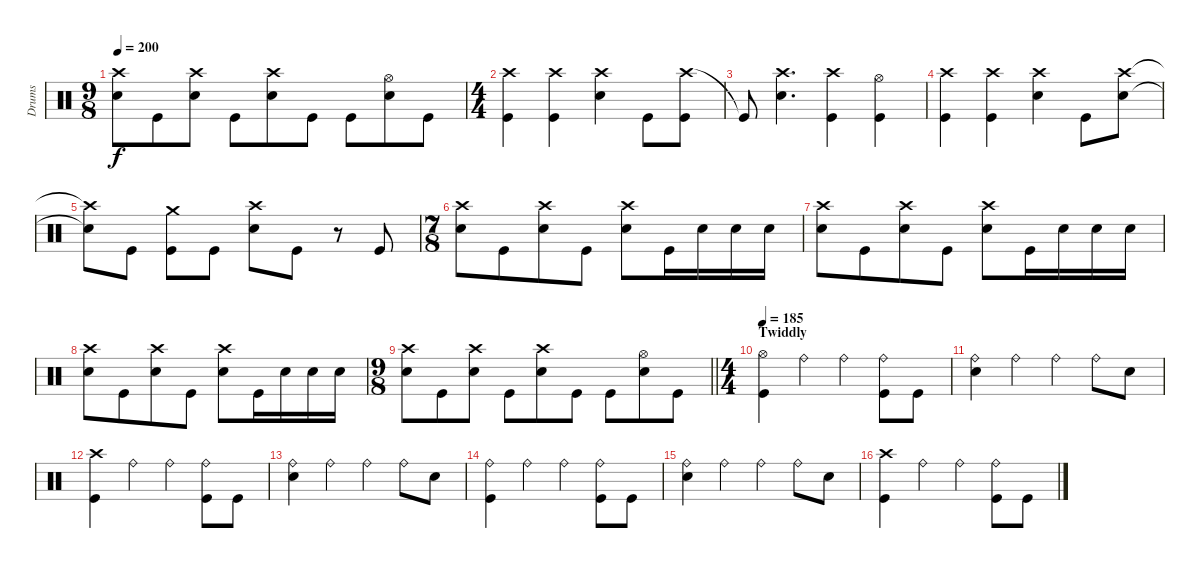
\track ("Drums" "Drums") {instrument percussion}
\staff {score}
\articulation defaults
\ts (9 8)
\tempo 200
\clef neutral
\ks c
("Crash high (hit)" "Snare (hit) 2").8{dy f} "Kick (hit)".8 ("Crash high (hit)" "Snare (hit) 2").8 "Kick (hit)".8 ("Crash high (hit)" "Snare (hit) 2").8 "Kick (hit)".8 "Kick (hit)".8 ("Hi-Hat (open)" "Snare (hit) 2").8 "Kick (hit)".8 |
\ts (4 4)
("Crash high (hit)" "Kick (hit)").4 ("Crash high (hit)" "Kick (hit)").4 ("Crash high (hit)" "Snare (hit) 2").4 "Kick (hit)".8 ("Crash high (hit)" "Kick (hit)").8 |
"Kick (hit)"{t}.8 ("Crash high (hit)" "Snare (hit) 2").4{d} ("Crash high (hit)" "Kick (hit)").4 ("Hi-Hat (open)" "Kick (hit)").4 |
("Crash high (hit)" "Kick (hit)").4 ("Crash high (hit)" "Kick (hit)").4 ("Crash high (hit)" "Snare (hit) 2").4 "Kick (hit)".8 ("Crash high (hit)" "Snare (hit) 2").8 |
("Crash high (hit)"{t} "Snare (hit) 2"{t}).8 "Kick (hit)".8 ("Crash medium (hit)" "Kick (hit)").8 "Kick (hit)".8 ("Crash high (hit)" "Snare (hit) 2").8 "Kick (hit)".8 r.8 "Kick (hit)".8 |
\ts (7 8)
("Crash high (hit)" "Snare (hit) 2").8 "Kick (hit)".8 ("Crash high (hit)" "Snare (hit) 2").8 "Kick (hit)".8 ("Crash high (hit)" "Snare (hit) 2").8 "Kick (hit)".16 "Snare (hit) 2".16 "Snare (hit) 2".16 "Snare (hit) 2".16 |
("Crash high (hit)" "Snare (hit) 2").8 "Kick (hit)".8 ("Crash high (hit)" "Snare (hit) 2").8 "Kick (hit)".8 ("Crash high (hit)" "Snare (hit) 2").8 "Kick (hit)".16 "Snare (hit) 2".16 "Snare (hit) 2".16 "Snare (hit) 2".16 |
("Crash high (hit)" "Snare (hit) 2").8 "Kick (hit)".8 ("Crash high (hit)" "Snare (hit) 2").8 "Kick (hit)".8 ("Crash high (hit)" "Snare (hit) 2").8 "Kick (hit)".16 "Snare (hit) 2".16 "Snare (hit) 2".16 "Snare (hit) 2".16 |
\ts (9 8)
\barLineRight lightlight
("Crash high (hit)" "Snare (hit) 2").8 "Kick (hit)".8 ("Crash high (hit)" "Snare (hit) 2").8 "Kick (hit)".8 ("Crash high (hit)" "Snare (hit) 2").8 "Kick (hit)".8 "Kick (hit)".8 ("Hi-Hat (open)" "Snare (hit) 2").8 "Kick (hit)".8 |
\ts (4 4)
\section ("" "Twiddly")
\tempo 185
("Hi-Hat (open)" "Kick (hit)").4 "Ride (bell)".4 "Ride (bell)".4 ("Ride (bell)" "Kick (hit)").8 "Kick (hit)".8 |
("Ride (bell)" "Snare (hit) 2").4 "Ride (bell)".4 "Ride (bell)".4 "Ride (bell)".8 "Snare (hit) 2".8 |
("Crash high (hit)" "Kick (hit)").4 "Ride (bell)".4 "Ride (bell)".4 ("Ride (bell)" "Kick (hit)").8 "Kick (hit)".8 |
("Ride (bell)" "Snare (hit) 2").4 "Ride (bell)".4 "Ride (bell)".4 "Ride (bell)".8 "Snare (hit) 2".8 |
("Ride (bell)" "Kick (hit)").4 "Ride (bell)".4 "Ride (bell)".4 ("Ride (bell)" "Kick (hit)").8 "Kick (hit)".8 |
("Ride (bell)" "Snare (hit) 2").4 "Ride (bell)".4 "Ride (bell)".4 "Ride (bell)".8 "Snare (hit) 2".8 |
("Crash high (hit)" "Kick (hit)").4 "Ride (bell)".4 "Ride (bell)".4 ("Ride (bell)" "Kick (hit)").8 "Kick (hit)".8
